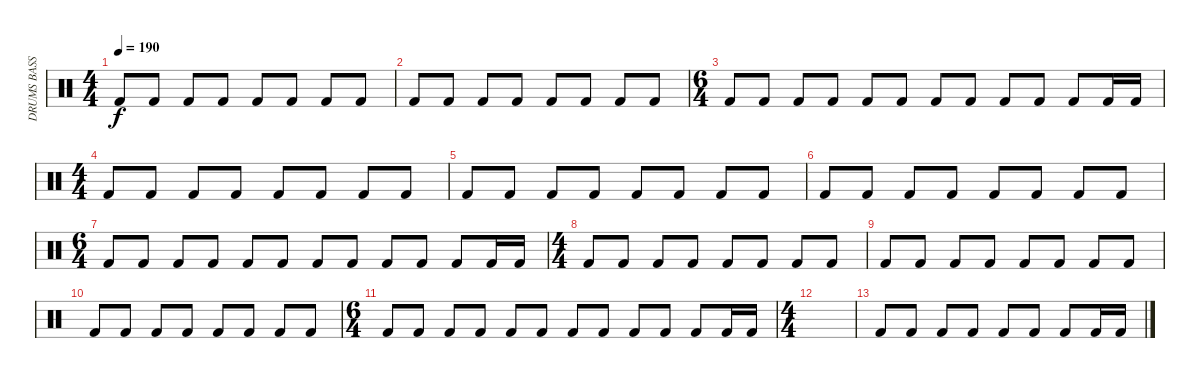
\track ("DRUMS BASS" "DRUMS BASS") {instrument percussion}
\staff {score}
\articulation defaults
\ts (4 4)
\tempo 190
\clef neutral
\ks c "Kick (hit) 2".8{dy f} "Kick (hit) 2".8 "Kick (hit) 2".8 "Kick (hit) 2".8 "Kick (hit) 2".8 "Kick (hit) 2".8 "Kick (hit) 2".8 "Kick (hit) 2".8
|
"Kick (hit) 2".8 "Kick (hit) 2".8 "Kick (hit) 2".8 "Kick (hit) 2".8 "Kick (hit) 2".8 "Kick (hit) 2".8 "Kick (hit) 2".8 "Kick (hit) 2".8 |
\ts (6 4)
"Kick (hit) 2".8 "Kick (hit) 2".8 "Kick (hit) 2".8 "Kick (hit) 2".8 "Kick (hit) 2".8 "Kick (hit) 2".8 "Kick (hit) 2".8 "Kick (hit) 2".8 "Kick (hit) 2".8 "Kick (hit) 2".8 "Kick (hit) 2".8 "Kick (hit) 2".16 "Kick (hit) 2".16 |
\ts (4 4)
"Kick (hit) 2".8 "Kick (hit) 2".8 "Kick (hit) 2".8 "Kick (hit) 2".8 "Kick (hit) 2".8 "Kick (hit) 2".8 "Kick (hit) 2".8 "Kick (hit) 2".8 |
"Kick (hit) 2".8 "Kick (hit) 2".8 "Kick (hit) 2".8 "Kick (hit) 2".8 "Kick (hit) 2".8 "Kick (hit) 2".8 "Kick (hit) 2".8 "Kick (hit) 2".8 |
"Kick (hit) 2".8 "Kick (hit) 2".8 "Kick (hit) 2".8 "Kick (hit) 2".8 "Kick (hit) 2".8 "Kick (hit) 2".8 "Kick (hit) 2".8 "Kick (hit) 2".8 |
\ts (6 4)
"Kick (hit) 2".8 "Kick (hit) 2".8 "Kick (hit) 2".8 "Kick (hit) 2".8 "Kick (hit) 2".8 "Kick (hit) 2".8 "Kick (hit) 2".8 "Kick (hit) 2".8 "Kick (hit) 2".8 "Kick (hit) 2".8 "Kick (hit) 2".8 "Kick (hit) 2".16 "Kick (hit) 2".16 |
\ts (4 4)
"Kick (hit) 2".8 "Kick (hit) 2".8 "Kick (hit) 2".8 "Kick (hit) 2".8 "Kick (hit) 2".8 "Kick (hit) 2".8 "Kick (hit) 2".8 "Kick (hit) 2".8 |
"Kick (hit) 2".8 "Kick (hit) 2".8 "Kick (hit) 2".8 "Kick (hit) 2".8 "Kick (hit) 2".8 "Kick (hit) 2".8 "Kick (hit) 2".8 "Kick (hit) 2".8 |
"Kick (hit) 2".8 "Kick (hit) 2".8 "Kick (hit) 2".8 "Kick (hit) 2".8 "Kick (hit) 2".8 "Kick (hit) 2".8 "Kick (hit) 2".8 "Kick (hit) 2".8 |
\ts (6 4)
"Kick (hit) 2".8 "Kick (hit) 2".8 "Kick (hit) 2".8 "Kick (hit) 2".8 "Kick (hit) 2".8 "Kick (hit) 2".8 "Kick (hit) 2".8 "Kick (hit) 2".8 "Kick (hit) 2".8 "Kick (hit) 2".8 "Kick (hit) 2".8 "Kick (hit) 2".16 "Kick (hit) 2".16 |
\ts (4 4)
|
"Kick (hit) 2".8 "Kick (hit) 2".8 "Kick (hit) 2".8 "Kick (hit) 2".8 "Kick (hit) 2".8 "Kick (hit) 2".8 "Kick (hit) 2".8 "Kick (hit) 2".16 "Kick (hit) 2".16
